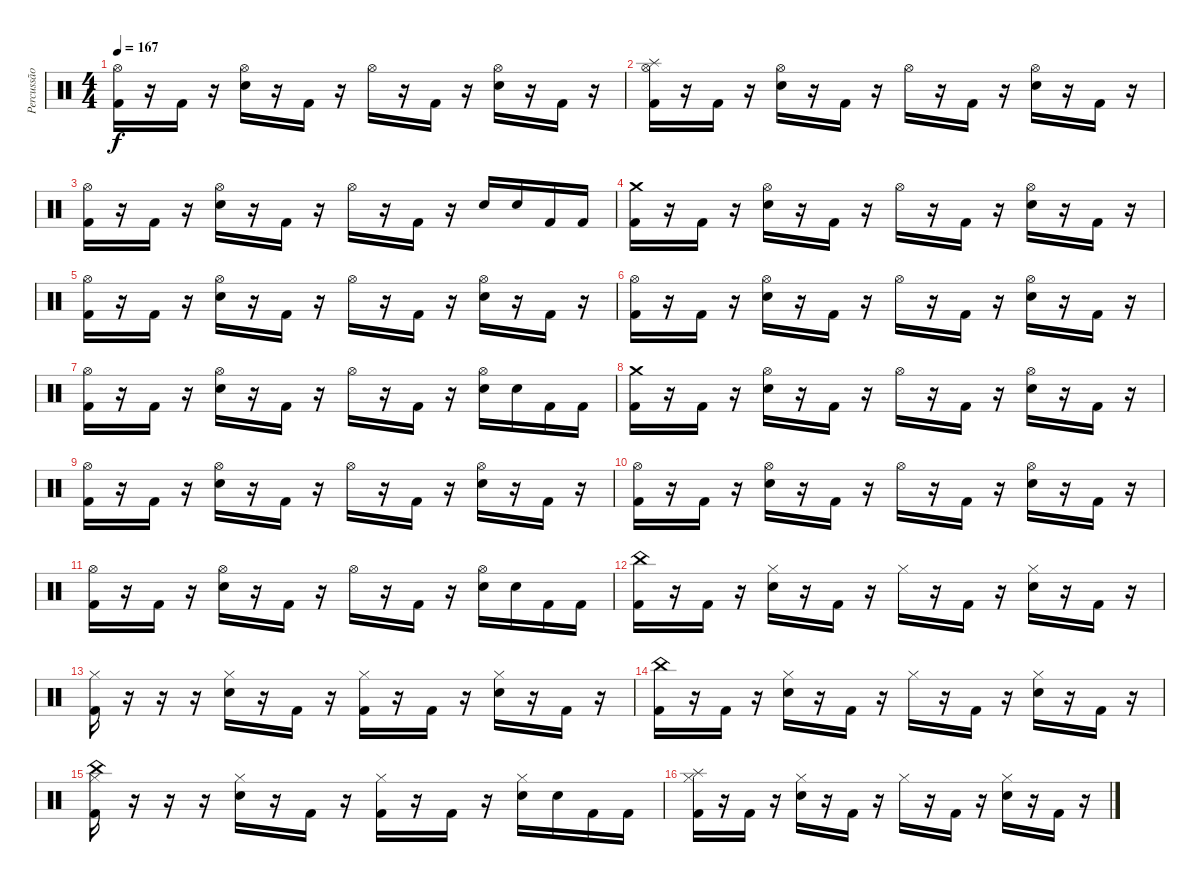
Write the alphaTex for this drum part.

\track ("Percussão" "Percussão") {instrument percussion}
\staff {score}
\articulation defaults
\ts (4 4)
\tempo 167
\clef neutral
\ks c
("Hi-Hat (open)" "Kick (hit) 2").16{dy f} r.16 "Kick (hit) 2".16 r.16 ("Hi-Hat (open)" "Electric Snare (hit)").16 r.16 "Kick (hit) 2".16 r.16 "Hi-Hat (open)".16 r.16 "Kick (hit) 2".16 r.16 ("Hi-Hat (open)" "Electric Snare (hit)").16 r.16 "Kick (hit) 2".16 r.16 |
("Splash (hit)" "Hi-Hat (open)" "Kick (hit) 2").16 r.16 "Kick (hit) 2".16 r.16 ("Hi-Hat (open)" "Electric Snare (hit)").16 r.16 "Kick (hit) 2".16 r.16 "Hi-Hat (open)".16 r.16 "Kick (hit) 2".16 r.16 ("Hi-Hat (open)" "Electric Snare (hit)").16 r.16 "Kick (hit) 2".16 r.16 |
("Hi-Hat (open)" "Kick (hit) 2").16 r.16 "Kick (hit) 2".16 r.16 ("Hi-Hat (open)" "Electric Snare (hit)").16 r.16 "Kick (hit) 2".16 r.16 "Hi-Hat (open)".16 r.16 "Kick (hit) 2".16 r.16 "Electric Snare (hit)".16 "Electric Snare (hit)".16 "Kick (hit) 2".16 "Kick (hit) 2".16 |
("Crash medium (hit)" "Kick (hit) 2").16 r.16 "Kick (hit) 2".16 r.16 ("Hi-Hat (open)" "Electric Snare (hit)").16 r.16 "Kick (hit) 2".16 r.16 "Hi-Hat (open)".16 r.16 "Kick (hit) 2".16 r.16 ("Hi-Hat (open)" "Electric Snare (hit)").16 r.16 "Kick (hit) 2".16 r.16 |
("Hi-Hat (open)" "Kick (hit) 2").16 r.16 "Kick (hit) 2".16 r.16 ("Hi-Hat (open)" "Electric Snare (hit)").16 r.16 "Kick (hit) 2".16 r.16 "Hi-Hat (open)".16 r.16 "Kick (hit) 2".16 r.16 ("Hi-Hat (open)" "Electric Snare (hit)").16 r.16 "Kick (hit) 2".16 r.16 |
("Hi-Hat (open)" "Kick (hit) 2").16 r.16 "Kick (hit) 2".16 r.16 ("Hi-Hat (open)" "Electric Snare (hit)").16 r.16 "Kick (hit) 2".16 r.16 "Hi-Hat (open)".16 r.16 "Kick (hit) 2".16 r.16 ("Hi-Hat (open)" "Electric Snare (hit)").16 r.16 "Kick (hit) 2".16 r.16 |
("Hi-Hat (open)" "Kick (hit) 2").16 r.16 "Kick (hit) 2".16 r.16 ("Hi-Hat (open)" "Electric Snare (hit)").16 r.16 "Kick (hit) 2".16 r.16 "Hi-Hat (open)".16 r.16 "Kick (hit) 2".16 r.16 ("Hi-Hat (open)" "Electric Snare (hit)").16 "Electric Snare (hit)".16 "Kick (hit) 2".16 "Kick (hit) 2".16 |
("Crash medium (hit)" "Kick (hit) 2").16 r.16 "Kick (hit) 2".16 r.16 ("Hi-Hat (open)" "Electric Snare (hit)").16 r.16 "Kick (hit) 2".16 r.16 "Hi-Hat (open)".16 r.16 "Kick (hit) 2".16 r.16 ("Hi-Hat (open)" "Electric Snare (hit)").16 r.16 "Kick (hit) 2".16 r.16 |
("Hi-Hat (open)" "Kick (hit) 2").16 r.16 "Kick (hit) 2".16 r.16 ("Hi-Hat (open)" "Electric Snare (hit)").16 r.16 "Kick (hit) 2".16 r.16 "Hi-Hat (open)".16 r.16 "Kick (hit) 2".16 r.16 ("Hi-Hat (open)" "Electric Snare (hit)").16 r.16 "Kick (hit) 2".16 r.16 |
("Hi-Hat (open)" "Kick (hit) 2").16 r.16 "Kick (hit) 2".16 r.16 ("Hi-Hat (open)" "Electric Snare (hit)").16 r.16 "Kick (hit) 2".16 r.16 "Hi-Hat (open)".16 r.16 "Kick (hit) 2".16 r.16 ("Hi-Hat (open)" "Electric Snare (hit)").16 r.16 "Kick (hit) 2".16 r.16 |
("Hi-Hat (open)" "Kick (hit) 2").16 r.16 "Kick (hit) 2".16 r.16 ("Hi-Hat (open)" "Electric Snare (hit)").16 r.16 "Kick (hit) 2".16 r.16 "Hi-Hat (open)".16 r.16 "Kick (hit) 2".16 r.16 ("Hi-Hat (open)" "Electric Snare (hit)").16 "Electric Snare (hit)".16 "Kick (hit) 2".16 "Kick (hit) 2".16 |
("China (hit)" "Kick (hit) 2").16 r.16 "Kick (hit) 2".16 r.16 ("Hi-Hat (closed)" "Electric Snare (hit)").16 r.16 "Kick (hit) 2".16 r.16 "Hi-Hat (closed)".16 r.16 "Kick (hit) 2".16 r.16 ("Hi-Hat (closed)" "Electric Snare (hit)").16 r.16 "Kick (hit) 2".16 r.16 |
("Hi-Hat (closed)" "Kick (hit) 2").16 r.16 r.16 r.16 ("Hi-Hat (closed)" "Electric Snare (hit)").16 r.16 "Kick (hit) 2".16 r.16 ("Hi-Hat (closed)" "Kick (hit) 2").16 r.16 "Kick (hit) 2".16 r.16 ("Hi-Hat (closed)" "Electric Snare (hit)").16 r.16 "Kick (hit) 2".16 r.16 |
("China (hit)" "Kick (hit) 2").16 r.16 "Kick (hit) 2".16 r.16 ("Hi-Hat (closed)" "Electric Snare (hit)").16 r.16 "Kick (hit) 2".16 r.16 "Hi-Hat (closed)".16 r.16 "Kick (hit) 2".16 r.16 ("Hi-Hat (closed)" "Electric Snare (hit)").16 r.16 "Kick (hit) 2".16 r.16 |
("China (hit)" "Hi-Hat (closed)" "Kick (hit) 2").16 r.16 r.16 r.16 ("Hi-Hat (closed)" "Electric Snare (hit)").16 r.16 "Kick (hit) 2".16 r.16 ("Hi-Hat (closed)" "Kick (hit) 2").16 r.16 "Kick (hit) 2".16 r.16 ("Hi-Hat (closed)" "Electric Snare (hit)").16 "Electric Snare (hit)".16 "Kick (hit) 2".16 "Kick (hit) 2".16 |
("Splash (hit)" "Hi-Hat (closed)" "Kick (hit) 2").16 r.16 "Kick (hit) 2".16 r.16 ("Hi-Hat (closed)" "Electric Snare (hit)").16 r.16 "Kick (hit) 2".16 r.16 "Hi-Hat (closed)".16 r.16 "Kick (hit) 2".16 r.16 ("Hi-Hat (closed)" "Electric Snare (hit)").16 r.16 "Kick (hit) 2".16 r.16
